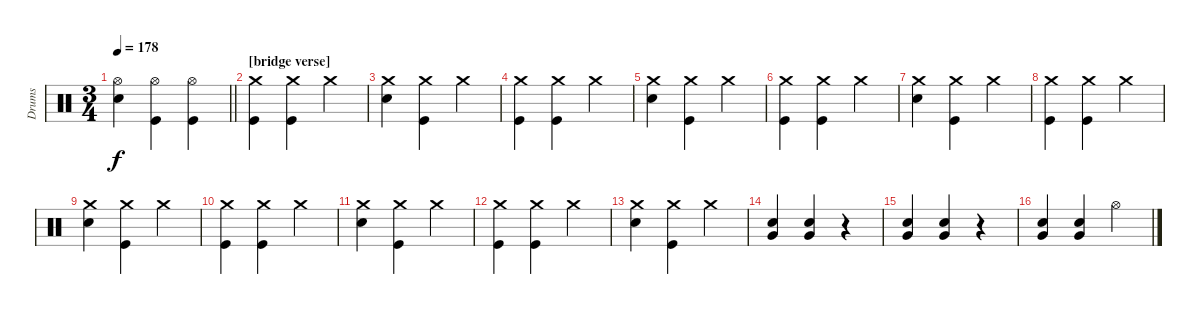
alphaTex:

\track ("Drums" "Drums") {instrument percussion}
\staff {score}
\articulation defaults
\ts (3 4)
\tempo 178
\clef neutral
\barLineRight lightlight
\ks c
("Snare (hit) 2" "Hi-Hat (open)").4{dy f} ("Kick (hit)" "Hi-Hat (open)").4 ("Kick (hit)" "Hi-Hat (open)").4 |
\section ("" "[bridge verse]")
("Kick (hit)" "Crash medium (hit)").4 ("Kick (hit)" "Crash medium (hit)").4 "Crash medium (hit)".4 |
("Snare (hit) 2" "Crash medium (hit)").4 ("Kick (hit)" "Crash medium (hit)").4 "Crash medium (hit)".4 |
("Kick (hit)" "Crash medium (hit)").4 ("Kick (hit)" "Crash medium (hit)").4 "Crash medium (hit)".4 |
("Snare (hit) 2" "Crash medium (hit)").4 ("Kick (hit)" "Crash medium (hit)").4 "Crash medium (hit)".4 |
("Kick (hit)" "Crash medium (hit)").4 ("Kick (hit)" "Crash medium (hit)").4 "Crash medium (hit)".4 |
("Snare (hit) 2" "Crash medium (hit)").4 ("Kick (hit)" "Crash medium (hit)").4 "Crash medium (hit)".4 |
("Kick (hit)" "Crash medium (hit)").4 ("Kick (hit)" "Crash medium (hit)").4 "Crash medium (hit)".4 |
("Snare (hit) 2" "Crash medium (hit)").4 ("Kick (hit)" "Crash medium (hit)").4 "Crash medium (hit)".4 |
("Kick (hit)" "Crash medium (hit)").4 ("Kick (hit)" "Crash medium (hit)").4 "Crash medium (hit)".4 |
("Snare (hit) 2" "Crash medium (hit)").4 ("Kick (hit)" "Crash medium (hit)").4 "Crash medium (hit)".4 |
("Kick (hit)" "Crash medium (hit)").4 ("Kick (hit)" "Crash medium (hit)").4 "Crash medium (hit)".4 |
("Snare (hit) 2" "Crash medium (hit)").4 ("Kick (hit)" "Crash medium (hit)").4 "Crash medium (hit)".4 |
("Very Low Tom (hit)" "Snare (hit) 2").4 ("Very Low Tom (hit)" "Snare (hit) 2").4 r.4 |
("Very Low Tom (hit)" "Snare (hit) 2").4 ("Very Low Tom (hit)" "Snare (hit) 2").4 r.4 |
("Very Low Tom (hit)" "Snare (hit) 2").4 ("Very Low Tom (hit)" "Snare (hit) 2").4 "Hi-Hat (open)".4
